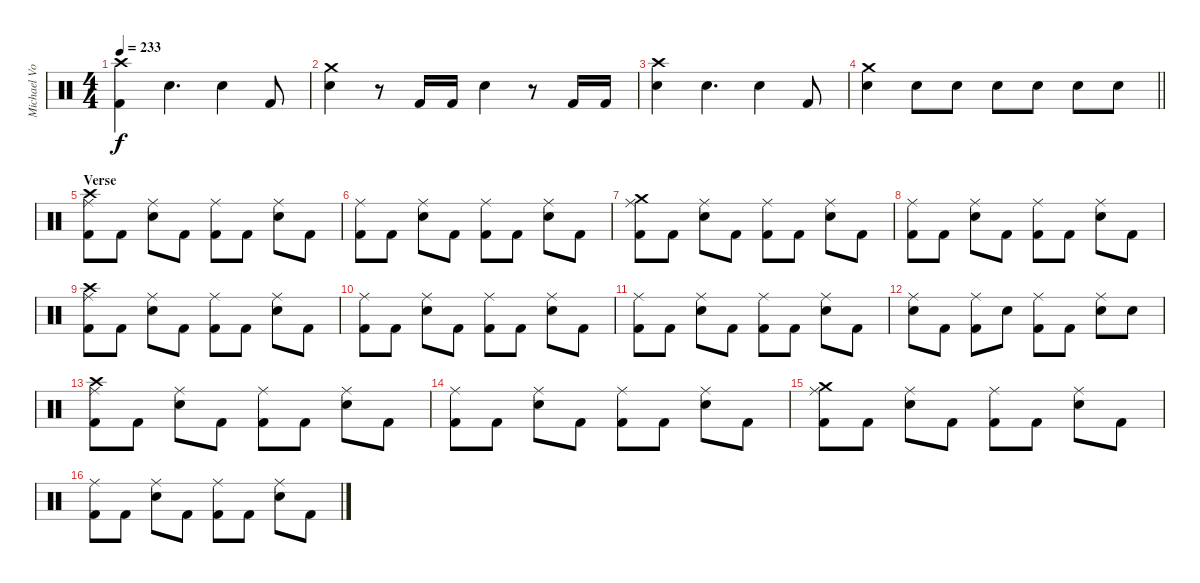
\track ("Michael Von Knorring" "Michael Vo") {instrument percussion}
\staff {score}
\articulation defaults
\ts (4 4)
\tempo 233
\clef neutral
\ks c
("Crash high (hit)" "Kick (hit) 2").4{dy f} "Snare (hit) 2".4{d} "Snare (hit) 2".4 "Kick (hit) 2".8 |
("Crash medium (hit)" "Snare (hit) 2").4 r.8 "Kick (hit) 2".16 "Kick (hit) 2".16 "Snare (hit) 2".4 r.8 "Kick (hit) 2".16 "Kick (hit) 2".16 |
("Crash high (hit)" "Snare (hit) 2").4 "Snare (hit) 2".4{d} "Snare (hit) 2".4 "Kick (hit) 2".8 |
\barLineRight lightlight
("Crash medium (hit)" "Snare (hit) 2").4 "Snare (hit) 2".8 "Snare (hit) 2".8 "Snare (hit) 2".8 "Snare (hit) 2".8 "Snare (hit) 2".8 "Snare (hit) 2".8 |
\section ("" "Verse")
("Crash high (hit)" "Ride (middle)" "Kick (hit) 2").8 "Kick (hit) 2".8 ("Ride (middle)" "Snare (hit) 2").8 "Kick (hit) 2".8 ("Ride (middle)" "Kick (hit) 2").8 "Kick (hit) 2".8 ("Ride (middle)" "Snare (hit) 2").8 "Kick (hit) 2".8 |
("Ride (middle)" "Kick (hit) 2").8 "Kick (hit) 2".8 ("Ride (middle)" "Snare (hit) 2").8 "Kick (hit) 2".8 ("Ride (middle)" "Kick (hit) 2").8 "Kick (hit) 2".8 ("Ride (middle)" "Snare (hit) 2").8 "Kick (hit) 2".8 |
("Crash medium (hit)" "Ride (middle)" "Kick (hit) 2").8 "Kick (hit) 2".8 ("Ride (middle)" "Snare (hit) 2").8 "Kick (hit) 2".8 ("Ride (middle)" "Kick (hit) 2").8 "Kick (hit) 2".8 ("Ride (middle)" "Snare (hit) 2").8 "Kick (hit) 2".8 |
("Ride (middle)" "Kick (hit) 2").8 "Kick (hit) 2".8 ("Ride (middle)" "Snare (hit) 2").8 "Kick (hit) 2".8 ("Ride (middle)" "Kick (hit) 2").8 "Kick (hit) 2".8 ("Ride (middle)" "Snare (hit) 2").8 "Kick (hit) 2".8 |
("Crash high (hit)" "Ride (middle)" "Kick (hit) 2").8 "Kick (hit) 2".8 ("Ride (middle)" "Snare (hit) 2").8 "Kick (hit) 2".8 ("Ride (middle)" "Kick (hit) 2").8 "Kick (hit) 2".8 ("Ride (middle)" "Snare (hit) 2").8 "Kick (hit) 2".8 |
("Ride (middle)" "Kick (hit) 2").8 "Kick (hit) 2".8 ("Ride (middle)" "Snare (hit) 2").8 "Kick (hit) 2".8 ("Ride (middle)" "Kick (hit) 2").8 "Kick (hit) 2".8 ("Ride (middle)" "Snare (hit) 2").8 "Kick (hit) 2".8 |
("Ride (middle)" "Kick (hit) 2").8 "Kick (hit) 2".8 ("Ride (middle)" "Snare (hit) 2").8 "Kick (hit) 2".8 ("Ride (middle)" "Kick (hit) 2").8 "Kick (hit) 2".8 ("Ride (middle)" "Snare (hit) 2").8 "Kick (hit) 2".8 |
("Ride (middle)" "Snare (hit) 2").8 "Kick (hit) 2".8 ("Ride (middle)" "Kick (hit) 2").8 "Snare (hit) 2".8 ("Ride (middle)" "Kick (hit) 2").8 "Kick (hit) 2".8 ("Ride (middle)" "Snare (hit) 2").8 "Snare (hit) 2".8 |
("Crash high (hit)" "Ride (middle)" "Kick (hit) 2").8 "Kick (hit) 2".8 ("Ride (middle)" "Snare (hit) 2").8 "Kick (hit) 2".8 ("Ride (middle)" "Kick (hit) 2").8 "Kick (hit) 2".8 ("Ride (middle)" "Snare (hit) 2").8 "Kick (hit) 2".8 |
("Ride (middle)" "Kick (hit) 2").8 "Kick (hit) 2".8 ("Ride (middle)" "Snare (hit) 2").8 "Kick (hit) 2".8 ("Ride (middle)" "Kick (hit) 2").8 "Kick (hit) 2".8 ("Ride (middle)" "Snare (hit) 2").8 "Kick (hit) 2".8 |
("Crash medium (hit)" "Ride (middle)" "Kick (hit) 2").8 "Kick (hit) 2".8 ("Ride (middle)" "Snare (hit) 2").8 "Kick (hit) 2".8 ("Ride (middle)" "Kick (hit) 2").8 "Kick (hit) 2".8 ("Ride (middle)" "Snare (hit) 2").8 "Kick (hit) 2".8 |
("Ride (middle)" "Kick (hit) 2").8 "Kick (hit) 2".8 ("Ride (middle)" "Snare (hit) 2").8 "Kick (hit) 2".8 ("Ride (middle)" "Kick (hit) 2").8 "Kick (hit) 2".8 ("Ride (middle)" "Snare (hit) 2").8 "Kick (hit) 2".8
